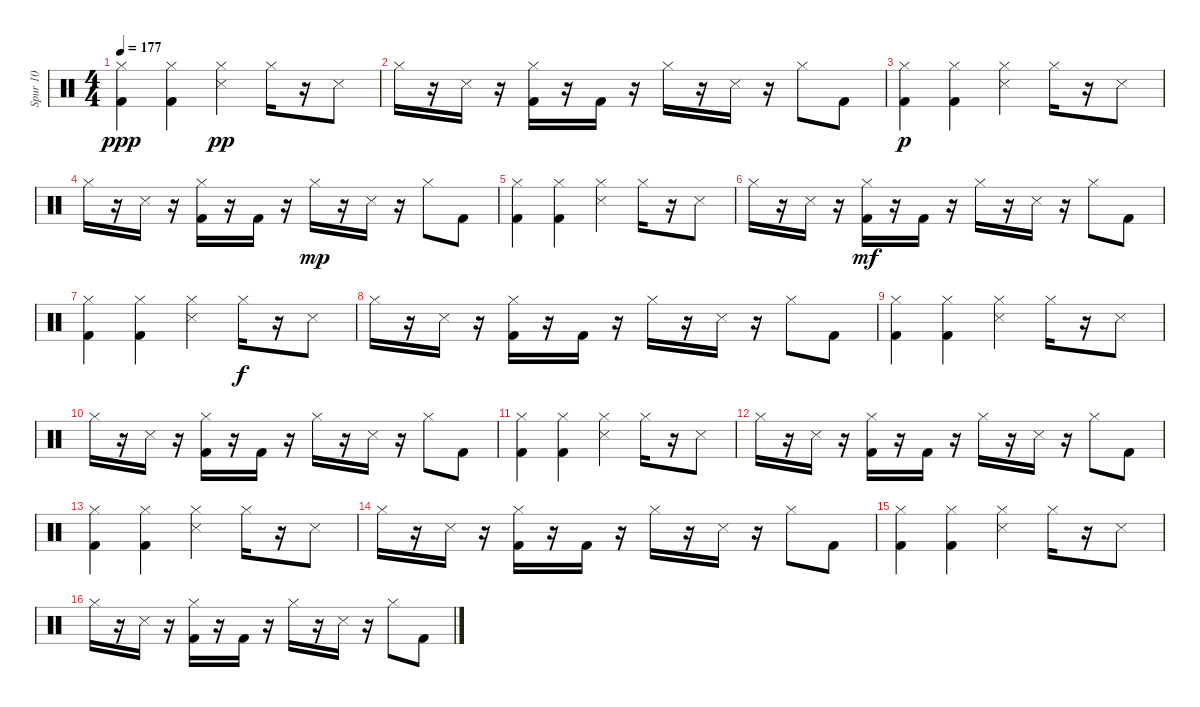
\track ("Spur 10" "Spur 10") {instrument percussion}
\staff {score}
\articulation defaults
\ts (4 4)
\tempo 177
\clef neutral
\ks c
("Hi-Hat (closed)" "Kick (hit) 2").4{dy ppp} ("Hi-Hat (closed)" "Kick (hit) 2").4 ("Hi-Hat (closed)" "Metronome (hit)").4{dy pp} "Hi-Hat (closed)".16 r.16 "Metronome (hit)".8 |
"Hi-Hat (closed)".16 r.16 "Metronome (hit)".16 r.16 ("Kick (hit) 2" "Hi-Hat (closed)").16 r.16 "Kick (hit) 2".16 r.16 "Hi-Hat (closed)".16 r.16 "Metronome (hit)".16 r.16 "Hi-Hat (closed)".8 "Kick (hit) 2".8 |
("Hi-Hat (closed)" "Kick (hit) 2").4{dy p} ("Hi-Hat (closed)" "Kick (hit) 2").4 ("Hi-Hat (closed)" "Metronome (hit)").4 "Hi-Hat (closed)".16 r.16 "Metronome (hit)".8 |
"Hi-Hat (closed)".16 r.16 "Metronome (hit)".16 r.16 ("Kick (hit) 2" "Hi-Hat (closed)").16 r.16 "Kick (hit) 2".16 r.16 "Hi-Hat (closed)".16{dy mp} r.16 "Metronome (hit)".16 r.16 "Hi-Hat (closed)".8 "Kick (hit) 2".8 |
("Hi-Hat (closed)" "Kick (hit) 2").4 ("Hi-Hat (closed)" "Kick (hit) 2").4 ("Hi-Hat (closed)" "Metronome (hit)").4 "Hi-Hat (closed)".16 r.16 "Metronome (hit)".8 |
"Hi-Hat (closed)".16 r.16 "Metronome (hit)".16 r.16 ("Kick (hit) 2" "Hi-Hat (closed)").16{dy mf} r.16 "Kick (hit) 2".16 r.16 "Hi-Hat (closed)".16 r.16 "Metronome (hit)".16 r.16 "Hi-Hat (closed)".8 "Kick (hit) 2".8 |
("Hi-Hat (closed)" "Kick (hit) 2").4 ("Hi-Hat (closed)" "Kick (hit) 2").4 ("Hi-Hat (closed)" "Metronome (hit)").4 "Hi-Hat (closed)".16{dy f} r.16 "Metronome (hit)".8 |
"Hi-Hat (closed)".16 r.16 "Metronome (hit)".16 r.16 ("Kick (hit) 2" "Hi-Hat (closed)").16 r.16 "Kick (hit) 2".16 r.16 "Hi-Hat (closed)".16 r.16 "Metronome (hit)".16 r.16 "Hi-Hat (closed)".8 "Kick (hit) 2".8 |
("Hi-Hat (closed)" "Kick (hit) 2").4 ("Hi-Hat (closed)" "Kick (hit) 2").4 ("Hi-Hat (closed)" "Metronome (hit)").4 "Hi-Hat (closed)".16 r.16 "Metronome (hit)".8 |
"Hi-Hat (closed)".16 r.16 "Metronome (hit)".16 r.16 ("Kick (hit) 2" "Hi-Hat (closed)").16 r.16 "Kick (hit) 2".16 r.16 "Hi-Hat (closed)".16 r.16 "Metronome (hit)".16 r.16 "Hi-Hat (closed)".8 "Kick (hit) 2".8 |
("Hi-Hat (closed)" "Kick (hit) 2").4 ("Hi-Hat (closed)" "Kick (hit) 2").4 ("Hi-Hat (closed)" "Metronome (hit)").4 "Hi-Hat (closed)".16 r.16 "Metronome (hit)".8 |
"Hi-Hat (closed)".16 r.16 "Metronome (hit)".16 r.16 ("Kick (hit) 2" "Hi-Hat (closed)").16 r.16 "Kick (hit) 2".16 r.16 "Hi-Hat (closed)".16 r.16 "Metronome (hit)".16 r.16 "Hi-Hat (closed)".8 "Kick (hit) 2".8 |
("Hi-Hat (closed)" "Kick (hit) 2").4 ("Hi-Hat (closed)" "Kick (hit) 2").4 ("Hi-Hat (closed)" "Metronome (hit)").4 "Hi-Hat (closed)".16 r.16 "Metronome (hit)".8 |
"Hi-Hat (closed)".16 r.16 "Metronome (hit)".16 r.16 ("Kick (hit) 2" "Hi-Hat (closed)").16 r.16 "Kick (hit) 2".16 r.16 "Hi-Hat (closed)".16 r.16 "Metronome (hit)".16 r.16 "Hi-Hat (closed)".8 "Kick (hit) 2".8 |
("Hi-Hat (closed)" "Kick (hit) 2").4 ("Hi-Hat (closed)" "Kick (hit) 2").4 ("Hi-Hat (closed)" "Metronome (hit)").4 "Hi-Hat (closed)".16 r.16 "Metronome (hit)".8 |
"Hi-Hat (closed)".16 r.16 "Metronome (hit)".16 r.16 ("Kick (hit) 2" "Hi-Hat (closed)").16 r.16 "Kick (hit) 2".16 r.16 "Hi-Hat (closed)".16 r.16 "Metronome (hit)".16 r.16 "Hi-Hat (closed)".8 "Kick (hit) 2".8
